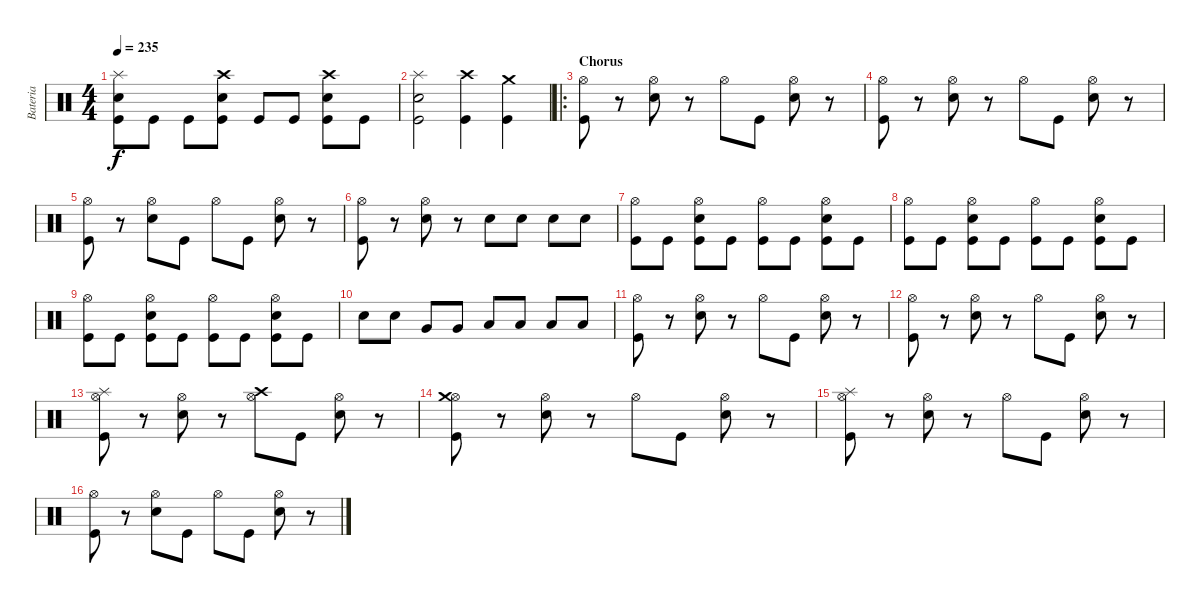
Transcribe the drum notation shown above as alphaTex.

\track ("Bateria" "Bateria") {instrument percussion}
\staff {score}
\articulation defaults
\ts (4 4)
\tempo 235
\clef neutral
\ks c
("Kick (hit)" "Electric Snare (hit)" "Splash (hit)").8{dy f} "Kick (hit)".8 "Kick (hit)".8 ("Kick (hit)" "Electric Snare (hit)" "Crash high (hit)").8 "Kick (hit)".8 "Kick (hit)".8 ("Kick (hit)" "Electric Snare (hit)" "Crash high (hit)").8 "Kick (hit)".8 |
("Kick (hit)" "Electric Snare (hit)" "Splash (hit)").2 ("Kick (hit)" "Crash high (hit)").4 ("Kick (hit)" "Crash medium (hit)").4 |
\ro
\section ("" "Chorus")
("Kick (hit)" "Hi-Hat (open)").8 r.8 ("Electric Snare (hit)" "Hi-Hat (open)").8 r.8 "Hi-Hat (open)".8 "Kick (hit)".8 ("Electric Snare (hit)" "Hi-Hat (open)").8 r.8 |
("Kick (hit)" "Hi-Hat (open)").8 r.8 ("Electric Snare (hit)" "Hi-Hat (open)").8 r.8 "Hi-Hat (open)".8 "Kick (hit)".8 ("Electric Snare (hit)" "Hi-Hat (open)").8 r.8 |
("Kick (hit)" "Hi-Hat (open)").8 r.8 ("Electric Snare (hit)" "Hi-Hat (open)").8 "Kick (hit)".8 "Hi-Hat (open)".8 "Kick (hit)".8 ("Electric Snare (hit)" "Hi-Hat (open)").8 r.8 |
("Kick (hit)" "Hi-Hat (open)").8 r.8 ("Electric Snare (hit)" "Hi-Hat (open)").8 r.8 "Electric Snare (hit)".8 "Electric Snare (hit)".8 "Electric Snare (hit)".8 "Electric Snare (hit)".8 |
("Kick (hit)" "Hi-Hat (open)").8 "Kick (hit)".8 ("Kick (hit)" "Electric Snare (hit)" "Hi-Hat (open)").8 "Kick (hit)".8 ("Kick (hit)" "Hi-Hat (open)").8 "Kick (hit)".8 ("Kick (hit)" "Electric Snare (hit)" "Hi-Hat (open)").8 "Kick (hit)".8 |
("Kick (hit)" "Hi-Hat (open)").8 "Kick (hit)".8 ("Kick (hit)" "Electric Snare (hit)" "Hi-Hat (open)").8 "Kick (hit)".8 ("Kick (hit)" "Hi-Hat (open)").8 "Kick (hit)".8 ("Kick (hit)" "Electric Snare (hit)" "Hi-Hat (open)").8 "Kick (hit)".8 |
("Kick (hit)" "Hi-Hat (open)").8 "Kick (hit)".8 ("Kick (hit)" "Electric Snare (hit)" "Hi-Hat (open)").8 "Kick (hit)".8 ("Kick (hit)" "Hi-Hat (open)").8 "Kick (hit)".8 ("Kick (hit)" "Electric Snare (hit)" "Hi-Hat (open)").8 "Kick (hit)".8 |
"Electric Snare (hit)".8 "Electric Snare (hit)".8 "Very Low Tom (hit)".8 "Very Low Tom (hit)".8 "Low Floor Tom (hit)".8 "Low Floor Tom (hit)".8 "Low Tom (hit)".8 "Low Tom (hit)".8 |
("Kick (hit)" "Hi-Hat (open)").8 r.8 ("Electric Snare (hit)" "Hi-Hat (open)").8 r.8 "Hi-Hat (open)".8 "Kick (hit)".8 ("Electric Snare (hit)" "Hi-Hat (open)").8 r.8 |
("Kick (hit)" "Hi-Hat (open)").8 r.8 ("Electric Snare (hit)" "Hi-Hat (open)").8 r.8 "Hi-Hat (open)".8 "Kick (hit)".8 ("Electric Snare (hit)" "Hi-Hat (open)").8 r.8 |
("Kick (hit)" "Hi-Hat (open)" "Splash (hit)").8 r.8 ("Electric Snare (hit)" "Hi-Hat (open)").8 r.8 ("Hi-Hat (open)" "Crash high (hit)").8 "Kick (hit)".8 ("Electric Snare (hit)" "Hi-Hat (open)").8 r.8 |
("Kick (hit)" "Hi-Hat (open)" "Crash medium (hit)").8 r.8 ("Electric Snare (hit)" "Hi-Hat (open)").8 r.8 "Hi-Hat (open)".8 "Kick (hit)".8 ("Electric Snare (hit)" "Hi-Hat (open)").8 r.8 |
("Kick (hit)" "Hi-Hat (open)" "Splash (hit)").8 r.8 ("Electric Snare (hit)" "Hi-Hat (open)").8 r.8 "Hi-Hat (open)".8 "Kick (hit)".8 ("Electric Snare (hit)" "Hi-Hat (open)").8 r.8 |
("Kick (hit)" "Hi-Hat (open)").8 r.8 ("Electric Snare (hit)" "Hi-Hat (open)").8 "Kick (hit)".8 "Hi-Hat (open)".8 "Kick (hit)".8 ("Electric Snare (hit)" "Hi-Hat (open)").8 r.8
